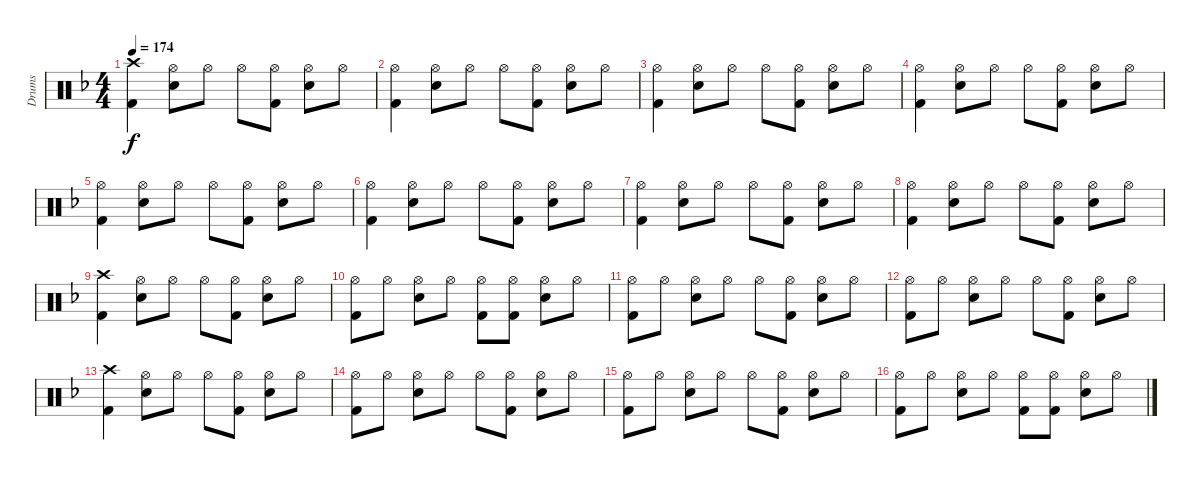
\track ("Drums" "Drums") {instrument percussion}
\staff {score}
\articulation defaults
\ts (4 4)
\tempo 174
\clef neutral
\ks dminor
("Kick (hit) 2" "Crash high (hit)").4{dy f} ("Snare (hit) 2" "Hi-Hat (open)").8 "Hi-Hat (open)".8 "Hi-Hat (open)".8 ("Kick (hit) 2" "Hi-Hat (open)").8 ("Snare (hit) 2" "Hi-Hat (open)").8 "Hi-Hat (open)".8 |
("Kick (hit) 2" "Hi-Hat (open)").4 ("Snare (hit) 2" "Hi-Hat (open)").8 "Hi-Hat (open)".8 "Hi-Hat (open)".8 ("Kick (hit) 2" "Hi-Hat (open)").8 ("Snare (hit) 2" "Hi-Hat (open)").8 "Hi-Hat (open)".8 |
("Kick (hit) 2" "Hi-Hat (open)").4 ("Snare (hit) 2" "Hi-Hat (open)").8 "Hi-Hat (open)".8 "Hi-Hat (open)".8 ("Kick (hit) 2" "Hi-Hat (open)").8 ("Snare (hit) 2" "Hi-Hat (open)").8 "Hi-Hat (open)".8 |
("Kick (hit) 2" "Hi-Hat (open)").4 ("Snare (hit) 2" "Hi-Hat (open)").8 "Hi-Hat (open)".8 "Hi-Hat (open)".8 ("Kick (hit) 2" "Hi-Hat (open)").8 ("Snare (hit) 2" "Hi-Hat (open)").8 "Hi-Hat (open)".8 |
("Kick (hit) 2" "Hi-Hat (open)").4 ("Snare (hit) 2" "Hi-Hat (open)").8 "Hi-Hat (open)".8 "Hi-Hat (open)".8 ("Kick (hit) 2" "Hi-Hat (open)").8 ("Snare (hit) 2" "Hi-Hat (open)").8 "Hi-Hat (open)".8 |
("Kick (hit) 2" "Hi-Hat (open)").4 ("Snare (hit) 2" "Hi-Hat (open)").8 "Hi-Hat (open)".8 "Hi-Hat (open)".8 ("Kick (hit) 2" "Hi-Hat (open)").8 ("Snare (hit) 2" "Hi-Hat (open)").8 "Hi-Hat (open)".8 |
("Kick (hit) 2" "Hi-Hat (open)").4 ("Snare (hit) 2" "Hi-Hat (open)").8 "Hi-Hat (open)".8 "Hi-Hat (open)".8 ("Kick (hit) 2" "Hi-Hat (open)").8 ("Snare (hit) 2" "Hi-Hat (open)").8 "Hi-Hat (open)".8 |
("Kick (hit) 2" "Hi-Hat (open)").4 ("Snare (hit) 2" "Hi-Hat (open)").8 "Hi-Hat (open)".8 "Hi-Hat (open)".8 ("Kick (hit) 2" "Hi-Hat (open)").8 ("Snare (hit) 2" "Hi-Hat (open)").8 "Hi-Hat (open)".8 |
("Kick (hit) 2" "Crash high (hit)").4 ("Snare (hit) 2" "Hi-Hat (open)").8 "Hi-Hat (open)".8 "Hi-Hat (open)".8 ("Kick (hit) 2" "Hi-Hat (open)").8 ("Snare (hit) 2" "Hi-Hat (open)").8 "Hi-Hat (open)".8 |
("Kick (hit) 2" "Hi-Hat (open)").8 "Hi-Hat (open)".8 ("Snare (hit) 2" "Hi-Hat (open)").8 "Hi-Hat (open)".8 ("Kick (hit) 2" "Hi-Hat (open)").8 ("Kick (hit) 2" "Hi-Hat (open)").8 ("Snare (hit) 2" "Hi-Hat (open)").8 "Hi-Hat (open)".8 |
("Kick (hit) 2" "Hi-Hat (open)").8 "Hi-Hat (open)".8 ("Snare (hit) 2" "Hi-Hat (open)").8 "Hi-Hat (open)".8 "Hi-Hat (open)".8 ("Kick (hit) 2" "Hi-Hat (open)").8 ("Snare (hit) 2" "Hi-Hat (open)").8 "Hi-Hat (open)".8 |
("Kick (hit) 2" "Hi-Hat (open)").8 "Hi-Hat (open)".8 ("Snare (hit) 2" "Hi-Hat (open)").8 "Hi-Hat (open)".8 "Hi-Hat (open)".8 ("Kick (hit) 2" "Hi-Hat (open)").8 ("Snare (hit) 2" "Hi-Hat (open)").8 "Hi-Hat (open)".8 |
("Kick (hit) 2" "Crash high (hit)").4 ("Snare (hit) 2" "Hi-Hat (open)").8 "Hi-Hat (open)".8 "Hi-Hat (open)".8 ("Kick (hit) 2" "Hi-Hat (open)").8 ("Snare (hit) 2" "Hi-Hat (open)").8 "Hi-Hat (open)".8 |
("Kick (hit) 2" "Hi-Hat (open)").8 "Hi-Hat (open)".8 ("Snare (hit) 2" "Hi-Hat (open)").8 "Hi-Hat (open)".8 "Hi-Hat (open)".8 ("Kick (hit) 2" "Hi-Hat (open)").8 ("Snare (hit) 2" "Hi-Hat (open)").8 "Hi-Hat (open)".8 |
("Kick (hit) 2" "Hi-Hat (open)").8 "Hi-Hat (open)".8 ("Snare (hit) 2" "Hi-Hat (open)").8 "Hi-Hat (open)".8 "Hi-Hat (open)".8 ("Kick (hit) 2" "Hi-Hat (open)").8 ("Snare (hit) 2" "Hi-Hat (open)").8 "Hi-Hat (open)".8 |
("Kick (hit) 2" "Hi-Hat (open)").8 "Hi-Hat (open)".8 ("Snare (hit) 2" "Hi-Hat (open)").8 "Hi-Hat (open)".8 ("Kick (hit) 2" "Hi-Hat (open)").8 ("Kick (hit) 2" "Hi-Hat (open)").8 ("Snare (hit) 2" "Hi-Hat (open)").8 "Hi-Hat (open)".8
